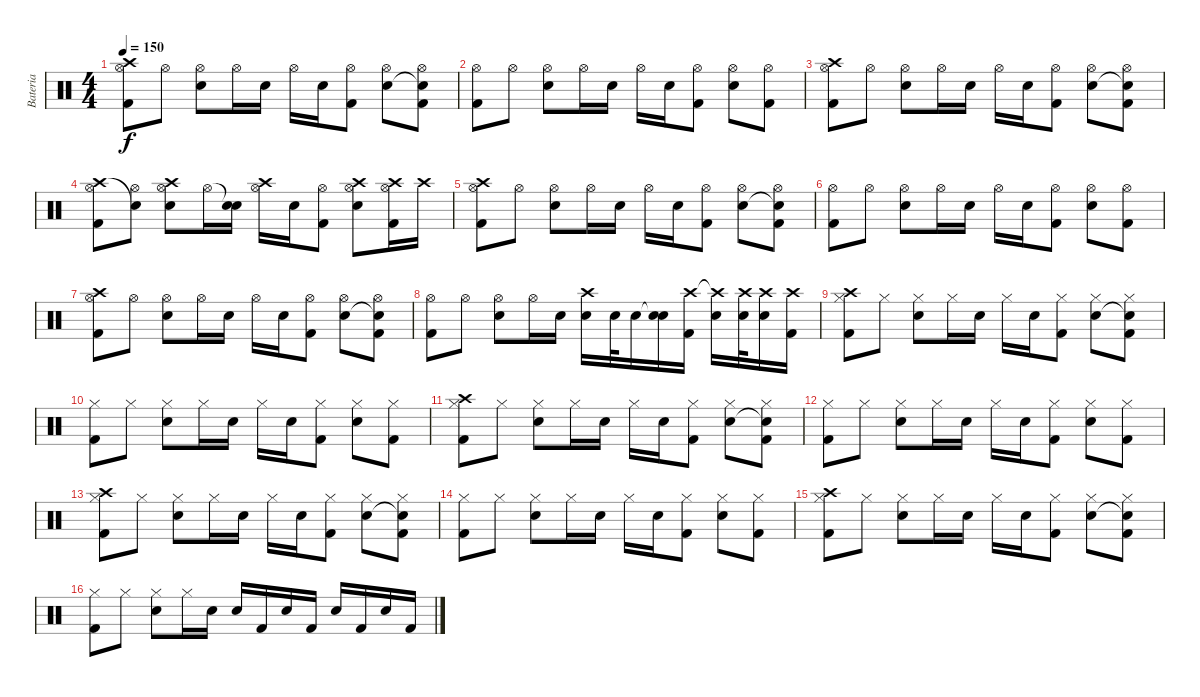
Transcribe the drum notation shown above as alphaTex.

\track ("Bateria" "Bateria") {instrument percussion}
\staff {score}
\articulation defaults
\ts (4 4)
\tempo 150
\clef neutral
\ks c
("Hi-Hat (open)" "Crash high (hit)" "Kick (hit) 2").8{dy f} "Hi-Hat (open)".8 ("Hi-Hat (open)" "Snare (hit) 2").8 "Hi-Hat (open)".16 "Snare (hit) 2".16 "Hi-Hat (open)".16 "Snare (hit) 2".16 ("Hi-Hat (open)" "Kick (hit) 2").8 ("Hi-Hat (open)" "Snare (hit) 2").8 ("Hi-Hat (open)" "Snare (hit)"{t} "Kick (hit) 2").8 |
("Hi-Hat (open)" "Kick (hit) 2").8 "Hi-Hat (open)".8 ("Hi-Hat (open)" "Snare (hit) 2").8 "Hi-Hat (open)".16 "Snare (hit) 2".16 "Hi-Hat (open)".16 "Snare (hit) 2".16 ("Hi-Hat (open)" "Kick (hit) 2").8 ("Hi-Hat (open)" "Snare (hit) 2").8 ("Hi-Hat (open)" "Kick (hit) 2").8 |
("Hi-Hat (open)" "Crash high (hit)" "Kick (hit) 2").8 "Hi-Hat (open)".8 ("Hi-Hat (open)" "Snare (hit) 2").8 "Hi-Hat (open)".16 "Snare (hit) 2".16 "Hi-Hat (open)".16 "Snare (hit) 2".16 ("Hi-Hat (open)" "Kick (hit) 2").8 ("Hi-Hat (open)" "Snare (hit) 2").8 ("Hi-Hat (open)" "Snare (hit)"{t} "Kick (hit) 2").8 |
("Hi-Hat (open)" "Crash high (hit)" "Kick (hit) 2").8 ("Hi-Hat (open)" "Snare (hit)"{t}).8 ("Hi-Hat (open)" "Crash high (hit)" "Snare (hit) 2").8 "Hi-Hat (open)".16 ("Snare (hit)"{t} "Snare (hit) 2").16 ("Hi-Hat (open)" "Crash high (hit)").16 "Snare (hit) 2".16 ("Hi-Hat (open)" "Kick (hit) 2").8 ("Hi-Hat (open)" "Crash high (hit)" "Snare (hit) 2").8 ("Hi-Hat (open)" "Crash high (hit)" "Kick (hit) 2").16 "Crash high (hit)".16 |
("Hi-Hat (open)" "Crash high (hit)" "Kick (hit) 2").8 "Hi-Hat (open)".8 ("Hi-Hat (open)" "Snare (hit) 2").8 "Hi-Hat (open)".16 "Snare (hit) 2".16 "Hi-Hat (open)".16 "Snare (hit) 2".16 ("Hi-Hat (open)" "Kick (hit) 2").8 ("Hi-Hat (open)" "Snare (hit) 2").8 ("Hi-Hat (open)" "Snare (hit)"{t} "Kick (hit) 2").8 |
("Hi-Hat (open)" "Kick (hit) 2").8 "Hi-Hat (open)".8 ("Hi-Hat (open)" "Snare (hit) 2").8 "Hi-Hat (open)".16 "Snare (hit) 2".16 "Hi-Hat (open)".16 "Snare (hit) 2".16 ("Hi-Hat (open)" "Kick (hit) 2").8 ("Hi-Hat (open)" "Snare (hit) 2").8 ("Hi-Hat (open)" "Kick (hit) 2").8 |
("Hi-Hat (open)" "Crash high (hit)" "Kick (hit) 2").8 "Hi-Hat (open)".8 ("Hi-Hat (open)" "Snare (hit) 2").8 "Hi-Hat (open)".16 "Snare (hit) 2".16 "Hi-Hat (open)".16 "Snare (hit) 2".16 ("Hi-Hat (open)" "Kick (hit) 2").8 ("Hi-Hat (open)" "Snare (hit) 2").8 ("Hi-Hat (open)" "Snare (hit)"{t} "Kick (hit) 2").8 |
("Hi-Hat (open)" "Kick (hit) 2").8 "Hi-Hat (open)".8 ("Hi-Hat (open)" "Snare (hit) 2").8 "Hi-Hat (open)".16 "Snare (hit) 2".16 ("Crash high (hit)" "Snare (hit) 2").16 "Snare (hit) 2".32 "Snare (hit) 2".16 ("Snare (hit)"{t} "Snare (hit) 2").16 ("Crash high (hit)" "Kick (hit) 2").16 ("Crash high (hit)"{t} "Snare (hit) 2").16 ("Crash high (hit)" "Snare (hit) 2").32 ("Crash high (hit)" "Snare (hit) 2").16 ("Crash high (hit)" "Kick (hit) 2").16 |
("Hi-Hat (closed)" "Crash high (hit)" "Kick (hit) 2").8 "Hi-Hat (closed)".8 ("Hi-Hat (closed)" "Snare (hit) 2").8 "Hi-Hat (closed)".16 "Snare (hit) 2".16 "Hi-Hat (closed)".16 "Snare (hit) 2".16 ("Hi-Hat (closed)" "Kick (hit) 2").8 ("Hi-Hat (closed)" "Snare (hit) 2").8 ("Hi-Hat (closed)" "Snare (hit)"{t} "Kick (hit) 2").8 |
("Hi-Hat (closed)" "Kick (hit) 2").8 "Hi-Hat (closed)".8 ("Hi-Hat (closed)" "Snare (hit) 2").8 "Hi-Hat (closed)".16 "Snare (hit) 2".16 "Hi-Hat (closed)".16 "Snare (hit) 2".16 ("Hi-Hat (closed)" "Kick (hit) 2").8 ("Hi-Hat (closed)" "Snare (hit) 2").8 ("Hi-Hat (closed)" "Kick (hit) 2").8 |
("Hi-Hat (closed)" "Crash high (hit)" "Kick (hit) 2").8 "Hi-Hat (closed)".8 ("Hi-Hat (closed)" "Snare (hit) 2").8 "Hi-Hat (closed)".16 "Snare (hit) 2".16 "Hi-Hat (closed)".16 "Snare (hit) 2".16 ("Hi-Hat (closed)" "Kick (hit) 2").8 ("Hi-Hat (closed)" "Snare (hit) 2").8 ("Hi-Hat (closed)" "Snare (hit)"{t} "Kick (hit) 2").8 |
("Hi-Hat (closed)" "Kick (hit) 2").8 "Hi-Hat (closed)".8 ("Hi-Hat (closed)" "Snare (hit) 2").8 "Hi-Hat (closed)".16 "Snare (hit) 2".16 "Hi-Hat (closed)".16 "Snare (hit) 2".16 ("Hi-Hat (closed)" "Kick (hit) 2").8 ("Hi-Hat (closed)" "Snare (hit) 2").8 ("Hi-Hat (closed)" "Kick (hit) 2").8 |
("Hi-Hat (closed)" "Crash high (hit)" "Kick (hit) 2").8 "Hi-Hat (closed)".8 ("Hi-Hat (closed)" "Snare (hit) 2").8 "Hi-Hat (closed)".16 "Snare (hit) 2".16 "Hi-Hat (closed)".16 "Snare (hit) 2".16 ("Hi-Hat (closed)" "Kick (hit) 2").8 ("Hi-Hat (closed)" "Snare (hit) 2").8 ("Hi-Hat (closed)" "Snare (hit)"{t} "Kick (hit) 2").8 |
("Hi-Hat (closed)" "Kick (hit) 2").8 "Hi-Hat (closed)".8 ("Hi-Hat (closed)" "Snare (hit) 2").8 "Hi-Hat (closed)".16 "Snare (hit) 2".16 "Hi-Hat (closed)".16 "Snare (hit) 2".16 ("Hi-Hat (closed)" "Kick (hit) 2").8 ("Hi-Hat (closed)" "Snare (hit) 2").8 ("Hi-Hat (closed)" "Kick (hit) 2").8 |
("Hi-Hat (closed)" "Crash high (hit)" "Kick (hit) 2").8 "Hi-Hat (closed)".8 ("Hi-Hat (closed)" "Snare (hit) 2").8 "Hi-Hat (closed)".16 "Snare (hit) 2".16 "Hi-Hat (closed)".16 "Snare (hit) 2".16 ("Hi-Hat (closed)" "Kick (hit) 2").8 ("Hi-Hat (closed)" "Snare (hit) 2").8 ("Hi-Hat (closed)" "Snare (hit)"{t} "Kick (hit) 2").8 |
("Hi-Hat (closed)" "Kick (hit) 2").8 "Hi-Hat (closed)".8 ("Hi-Hat (closed)" "Snare (hit) 2").8 "Hi-Hat (closed)".16 "Snare (hit) 2".16 "Snare (hit) 2".16 "Kick (hit) 2".16 "Snare (hit) 2".16 "Kick (hit) 2".16 "Snare (hit) 2".16 "Kick (hit) 2".16 "Snare (hit) 2".16 "Kick (hit) 2".16
